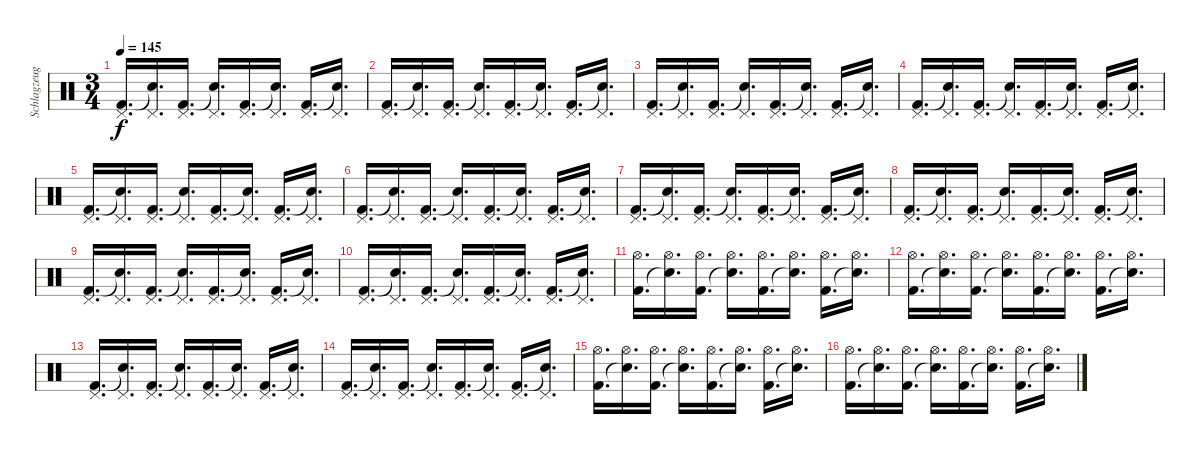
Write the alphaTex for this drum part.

\track ("Schlagzeug" "Schlagzeug") {instrument percussion}
\staff {score}
\articulation defaults
\ts (3 4)
\tempo 145
\clef neutral
\ks c
("Kick (hit) 2" "Pedal Hi-Hat (hit)").16{d dy f} ("Snare (hit)"{t} "Pedal Hi-Hat (hit)").16{d} ("Kick (hit) 2" "Pedal Hi-Hat (hit)").16{d} ("Snare (hit)"{t} "Pedal Hi-Hat (hit)").16{d} ("Kick (hit) 2" "Pedal Hi-Hat (hit)").16{d} ("Snare (hit)"{t} "Pedal Hi-Hat (hit)").16{d} ("Kick (hit) 2" "Pedal Hi-Hat (hit)").16{d} ("Snare (hit)"{t} "Pedal Hi-Hat (hit)").16{d} |
("Kick (hit) 2" "Pedal Hi-Hat (hit)").16{d} ("Snare (hit)"{t} "Pedal Hi-Hat (hit)").16{d} ("Kick (hit) 2" "Pedal Hi-Hat (hit)").16{d} ("Snare (hit)"{t} "Pedal Hi-Hat (hit)").16{d} ("Kick (hit) 2" "Pedal Hi-Hat (hit)").16{d} ("Snare (hit)"{t} "Pedal Hi-Hat (hit)").16{d} ("Kick (hit) 2" "Pedal Hi-Hat (hit)").16{d} ("Snare (hit)"{t} "Pedal Hi-Hat (hit)").16{d} |
("Kick (hit) 2" "Pedal Hi-Hat (hit)").16{d} ("Snare (hit)"{t} "Pedal Hi-Hat (hit)").16{d} ("Kick (hit) 2" "Pedal Hi-Hat (hit)").16{d} ("Snare (hit)"{t} "Pedal Hi-Hat (hit)").16{d} ("Kick (hit) 2" "Pedal Hi-Hat (hit)").16{d} ("Snare (hit)"{t} "Pedal Hi-Hat (hit)").16{d} ("Kick (hit) 2" "Pedal Hi-Hat (hit)").16{d} ("Snare (hit)"{t} "Pedal Hi-Hat (hit)").16{d} |
("Kick (hit) 2" "Pedal Hi-Hat (hit)").16{d} ("Snare (hit)"{t} "Pedal Hi-Hat (hit)").16{d} ("Kick (hit) 2" "Pedal Hi-Hat (hit)").16{d} ("Snare (hit)"{t} "Pedal Hi-Hat (hit)").16{d} ("Kick (hit) 2" "Pedal Hi-Hat (hit)").16{d} ("Snare (hit)"{t} "Pedal Hi-Hat (hit)").16{d} ("Kick (hit) 2" "Pedal Hi-Hat (hit)").16{d} ("Snare (hit)"{t} "Pedal Hi-Hat (hit)").16{d} |
("Kick (hit) 2" "Pedal Hi-Hat (hit)").16{d} ("Snare (hit)"{t} "Pedal Hi-Hat (hit)").16{d} ("Kick (hit) 2" "Pedal Hi-Hat (hit)").16{d} ("Snare (hit)"{t} "Pedal Hi-Hat (hit)").16{d} ("Kick (hit) 2" "Pedal Hi-Hat (hit)").16{d} ("Snare (hit)"{t} "Pedal Hi-Hat (hit)").16{d} ("Kick (hit) 2" "Pedal Hi-Hat (hit)").16{d} ("Snare (hit)"{t} "Pedal Hi-Hat (hit)").16{d} |
("Kick (hit) 2" "Pedal Hi-Hat (hit)").16{d} ("Snare (hit)"{t} "Pedal Hi-Hat (hit)").16{d} ("Kick (hit) 2" "Pedal Hi-Hat (hit)").16{d} ("Snare (hit)"{t} "Pedal Hi-Hat (hit)").16{d} ("Kick (hit) 2" "Pedal Hi-Hat (hit)").16{d} ("Snare (hit)"{t} "Pedal Hi-Hat (hit)").16{d} ("Kick (hit) 2" "Pedal Hi-Hat (hit)").16{d} ("Snare (hit)"{t} "Pedal Hi-Hat (hit)").16{d} |
("Kick (hit) 2" "Pedal Hi-Hat (hit)").16{d} ("Snare (hit)"{t} "Pedal Hi-Hat (hit)").16{d} ("Kick (hit) 2" "Pedal Hi-Hat (hit)").16{d} ("Snare (hit)"{t} "Pedal Hi-Hat (hit)").16{d} ("Kick (hit) 2" "Pedal Hi-Hat (hit)").16{d} ("Snare (hit)"{t} "Pedal Hi-Hat (hit)").16{d} ("Kick (hit) 2" "Pedal Hi-Hat (hit)").16{d} ("Snare (hit)"{t} "Pedal Hi-Hat (hit)").16{d} |
("Kick (hit) 2" "Pedal Hi-Hat (hit)").16{d} ("Snare (hit)"{t} "Pedal Hi-Hat (hit)").16{d} ("Kick (hit) 2" "Pedal Hi-Hat (hit)").16{d} ("Snare (hit)"{t} "Pedal Hi-Hat (hit)").16{d} ("Kick (hit) 2" "Pedal Hi-Hat (hit)").16{d} ("Snare (hit)"{t} "Pedal Hi-Hat (hit)").16{d} ("Kick (hit) 2" "Pedal Hi-Hat (hit)").16{d} ("Snare (hit)"{t} "Pedal Hi-Hat (hit)").16{d} |
("Kick (hit) 2" "Pedal Hi-Hat (hit)").16{d} ("Snare (hit)"{t} "Pedal Hi-Hat (hit)").16{d} ("Kick (hit) 2" "Pedal Hi-Hat (hit)").16{d} ("Snare (hit)"{t} "Pedal Hi-Hat (hit)").16{d} ("Kick (hit) 2" "Pedal Hi-Hat (hit)").16{d} ("Snare (hit)"{t} "Pedal Hi-Hat (hit)").16{d} ("Kick (hit) 2" "Pedal Hi-Hat (hit)").16{d} ("Snare (hit)"{t} "Pedal Hi-Hat (hit)").16{d} |
("Kick (hit) 2" "Pedal Hi-Hat (hit)").16{d} ("Snare (hit)"{t} "Pedal Hi-Hat (hit)").16{d} ("Kick (hit) 2" "Pedal Hi-Hat (hit)").16{d} ("Snare (hit)"{t} "Pedal Hi-Hat (hit)").16{d} ("Kick (hit) 2" "Pedal Hi-Hat (hit)").16{d} ("Snare (hit)"{t} "Pedal Hi-Hat (hit)").16{d} ("Kick (hit) 2" "Pedal Hi-Hat (hit)").16{d} ("Snare (hit)"{t} "Pedal Hi-Hat (hit)").16{d} |
("Kick (hit) 2" "Hi-Hat (open)").16{d} ("Snare (hit)"{t} "Hi-Hat (open)").16{d} ("Kick (hit) 2" "Hi-Hat (open)").16{d} ("Snare (hit)"{t} "Hi-Hat (open)").16{d} ("Kick (hit) 2" "Hi-Hat (open)").16{d} ("Snare (hit)"{t} "Hi-Hat (open)").16{d} ("Kick (hit) 2" "Hi-Hat (open)").16{d} ("Snare (hit)"{t} "Hi-Hat (open)").16{d} |
("Kick (hit) 2" "Hi-Hat (open)").16{d} ("Snare (hit)"{t} "Hi-Hat (open)").16{d} ("Kick (hit) 2" "Hi-Hat (open)").16{d} ("Snare (hit)"{t} "Hi-Hat (open)").16{d} ("Kick (hit) 2" "Hi-Hat (open)").16{d} ("Snare (hit)"{t} "Hi-Hat (open)").16{d} ("Kick (hit) 2" "Hi-Hat (open)").16{d} ("Snare (hit)"{t} "Hi-Hat (open)").16{d} |
("Kick (hit) 2" "Pedal Hi-Hat (hit)").16{d} ("Snare (hit)"{t} "Pedal Hi-Hat (hit)").16{d} ("Kick (hit) 2" "Pedal Hi-Hat (hit)").16{d} ("Snare (hit)"{t} "Pedal Hi-Hat (hit)").16{d} ("Kick (hit) 2" "Pedal Hi-Hat (hit)").16{d} ("Snare (hit)"{t} "Pedal Hi-Hat (hit)").16{d} ("Kick (hit) 2" "Pedal Hi-Hat (hit)").16{d} ("Snare (hit)"{t} "Pedal Hi-Hat (hit)").16{d} |
("Kick (hit) 2" "Pedal Hi-Hat (hit)").16{d} ("Snare (hit)"{t} "Pedal Hi-Hat (hit)").16{d} ("Kick (hit) 2" "Pedal Hi-Hat (hit)").16{d} ("Snare (hit)"{t} "Pedal Hi-Hat (hit)").16{d} ("Kick (hit) 2" "Pedal Hi-Hat (hit)").16{d} ("Snare (hit)"{t} "Pedal Hi-Hat (hit)").16{d} ("Kick (hit) 2" "Pedal Hi-Hat (hit)").16{d} ("Snare (hit)"{t} "Pedal Hi-Hat (hit)").16{d} |
("Kick (hit) 2" "Hi-Hat (open)").16{d} ("Snare (hit)"{t} "Hi-Hat (open)").16{d} ("Kick (hit) 2" "Hi-Hat (open)").16{d} ("Snare (hit)"{t} "Hi-Hat (open)").16{d} ("Kick (hit) 2" "Hi-Hat (open)").16{d} ("Snare (hit)"{t} "Hi-Hat (open)").16{d} ("Kick (hit) 2" "Hi-Hat (open)").16{d} ("Snare (hit)"{t} "Hi-Hat (open)").16{d} |
("Kick (hit) 2" "Hi-Hat (open)").16{d} ("Snare (hit)"{t} "Hi-Hat (open)").16{d} ("Kick (hit) 2" "Hi-Hat (open)").16{d} ("Snare (hit)"{t} "Hi-Hat (open)").16{d} ("Kick (hit) 2" "Hi-Hat (open)").16{d} ("Snare (hit)"{t} "Hi-Hat (open)").16{d} ("Kick (hit) 2" "Hi-Hat (open)").16{d} ("Snare (hit)"{t} "Hi-Hat (open)").16{d}
